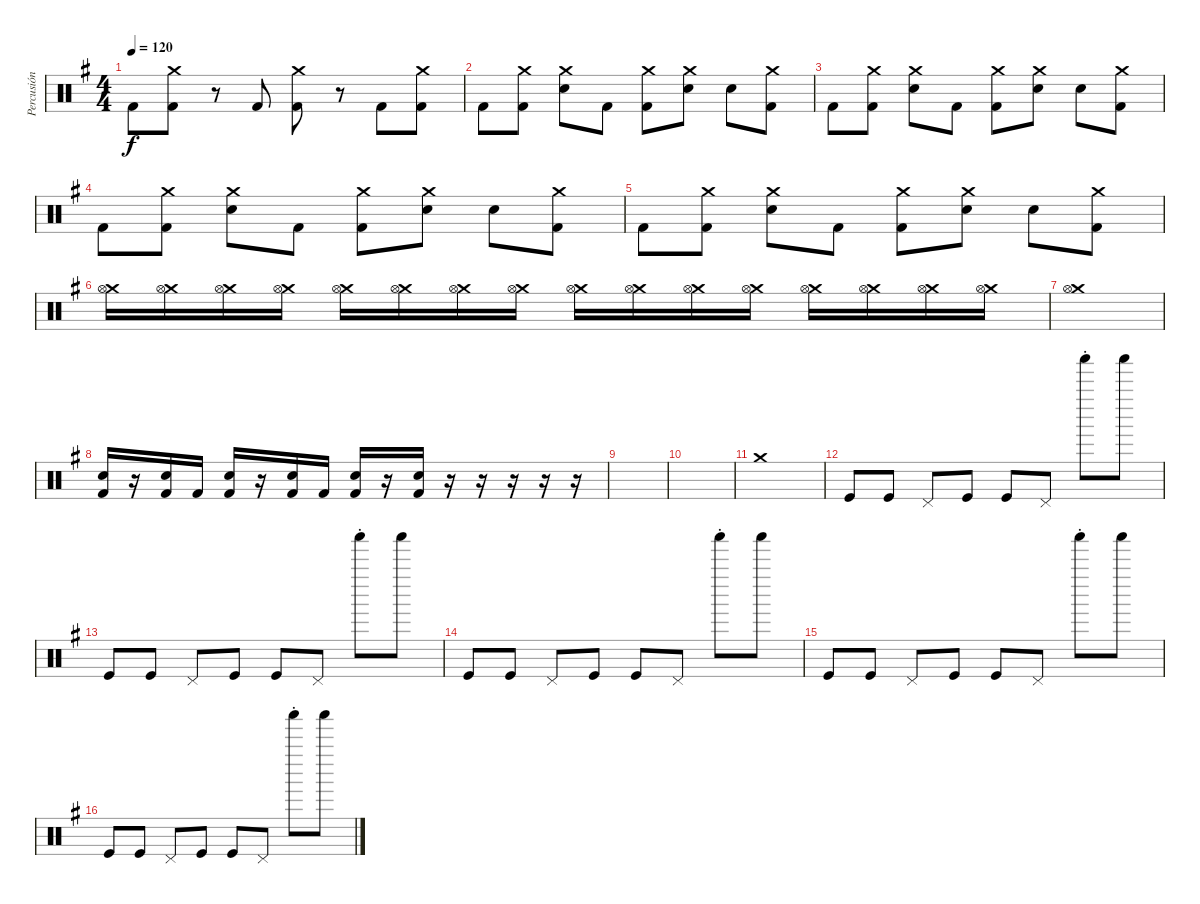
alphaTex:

\track ("Percusión" "Percusión") {instrument percussion}
\staff {score}
\articulation defaults
\ts (4 4)
\tempo 120
\clef neutral
\ks g "Kick (hit) 2".8{dy f}
("Crash medium (hit)" "Kick (hit) 2").8 r.8 "Kick (hit) 2".8 ("Crash medium (hit)" "Kick (hit) 2").8 r.8 "Kick (hit) 2".8 ("Crash medium (hit)" "Kick (hit) 2").8 |
"Kick (hit) 2".8 ("Crash medium (hit)" "Kick (hit) 2").8 ("Crash medium (hit)" "Electric Snare (hit)").8 "Kick (hit) 2".8 ("Crash medium (hit)" "Kick (hit) 2").8 ("Crash medium (hit)" "Electric Snare (hit)").8 "Electric Snare (hit)".8 ("Crash medium (hit)" "Kick (hit) 2").8 |
"Kick (hit) 2".8 ("Crash medium (hit)" "Kick (hit) 2").8 ("Crash medium (hit)" "Electric Snare (hit)").8 "Kick (hit) 2".8 ("Crash medium (hit)" "Kick (hit) 2").8 ("Crash medium (hit)" "Electric Snare (hit)").8 "Electric Snare (hit)".8 ("Crash medium (hit)" "Kick (hit) 2").8 |
"Kick (hit) 2".8 ("Crash medium (hit)" "Kick (hit) 2").8 ("Crash medium (hit)" "Electric Snare (hit)").8 "Kick (hit) 2".8 ("Crash medium (hit)" "Kick (hit) 2").8 ("Crash medium (hit)" "Electric Snare (hit)").8 "Electric Snare (hit)".8 ("Crash medium (hit)" "Kick (hit) 2").8 |
"Kick (hit) 2".8 ("Crash medium (hit)" "Kick (hit) 2").8 ("Crash medium (hit)" "Electric Snare (hit)").8 "Kick (hit) 2".8 ("Crash medium (hit)" "Kick (hit) 2").8 ("Crash medium (hit)" "Electric Snare (hit)").8 "Electric Snare (hit)".8 ("Crash medium (hit)" "Kick (hit) 2").8 |
("Crash medium (hit)" "Hi-Hat (open)").16 ("Crash medium (hit)" "Hi-Hat (open)").16 ("Crash medium (hit)" "Hi-Hat (open)").16 ("Crash medium (hit)" "Hi-Hat (open)").16 ("Crash medium (hit)" "Hi-Hat (open)").16 ("Crash medium (hit)" "Hi-Hat (open)").16 ("Crash medium (hit)" "Hi-Hat (open)").16 ("Crash medium (hit)" "Hi-Hat (open)").16 ("Crash medium (hit)" "Hi-Hat (open)").16 ("Crash medium (hit)" "Hi-Hat (open)").16 ("Crash medium (hit)" "Hi-Hat (open)").16 ("Crash medium (hit)" "Hi-Hat (open)").16 ("Crash medium (hit)" "Hi-Hat (open)").16 ("Crash medium (hit)" "Hi-Hat (open)").16 ("Crash medium (hit)" "Hi-Hat (open)").16 ("Crash medium (hit)" "Hi-Hat (open)").16 |
("Crash medium (hit)" "Hi-Hat (open)").1 |
("Snare (hit) 2" "Kick (hit) 2").16 r.16 ("Snare (hit) 2" "Kick (hit) 2").16 "Kick (hit) 2".16 ("Snare (hit) 2" "Kick (hit) 2").16 r.16 ("Snare (hit) 2" "Kick (hit) 2").16 "Kick (hit) 2".16 ("Snare (hit) 2" "Kick (hit) 2").16 r.16 ("Snare (hit) 2" "Kick (hit) 2").16 r.16 r.16 r.16 r.16 r.16 |
|
|
"Crash medium (hit)".1 |
"Kick (hit)".8 "Kick (hit)".8 "Pedal Hi-Hat (hit)".8 "Kick (hit)".8 "Kick (hit)".8 "Pedal Hi-Hat (hit)".8 "Shaker (hit)"{st}.8 "Shaker (hit)".8 |
"Kick (hit)".8 "Kick (hit)".8 "Pedal Hi-Hat (hit)".8 "Kick (hit)".8 "Kick (hit)".8 "Pedal Hi-Hat (hit)".8 "Shaker (hit)"{st}.8 "Shaker (hit)".8 |
"Kick (hit)".8 "Kick (hit)".8 "Pedal Hi-Hat (hit)".8 "Kick (hit)".8 "Kick (hit)".8 "Pedal Hi-Hat (hit)".8 "Shaker (hit)"{st}.8 "Shaker (hit)".8 |
"Kick (hit)".8 "Kick (hit)".8 "Pedal Hi-Hat (hit)".8 "Kick (hit)".8 "Kick (hit)".8 "Pedal Hi-Hat (hit)".8 "Shaker (hit)"{st}.8 "Shaker (hit)".8 |
"Kick (hit)".8 "Kick (hit)".8 "Pedal Hi-Hat (hit)".8 "Kick (hit)".8 "Kick (hit)".8 "Pedal Hi-Hat (hit)".8 "Shaker (hit)"{st}.8 "Shaker (hit)".8
